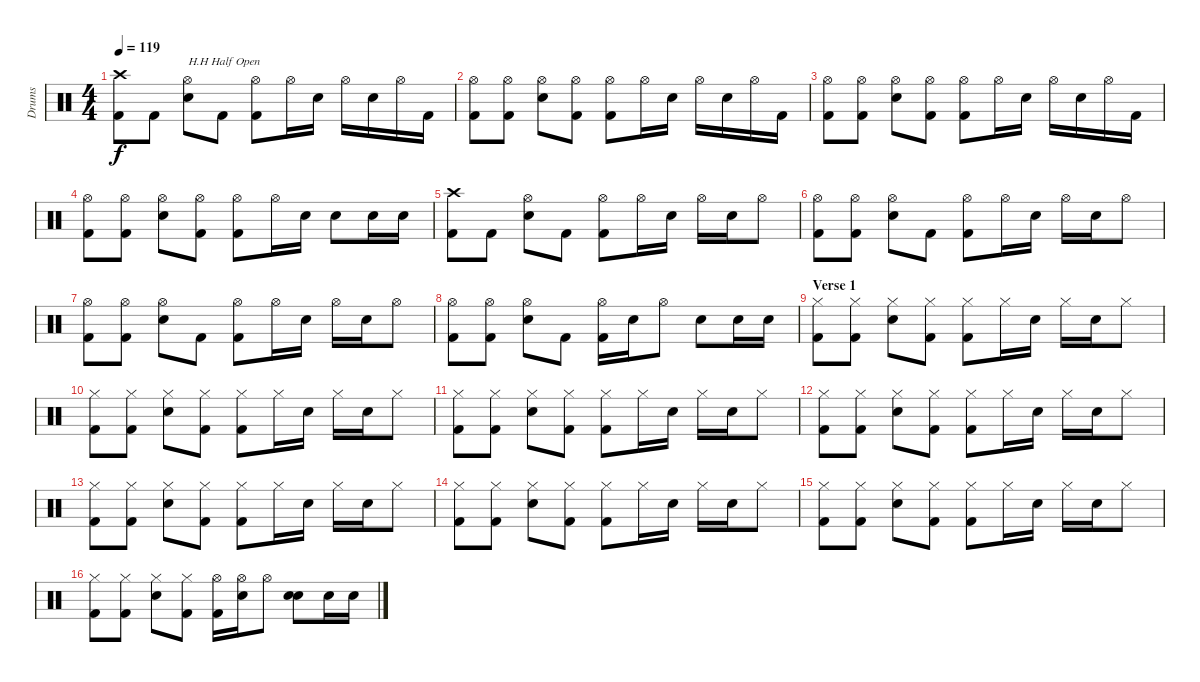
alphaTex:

\track ("Drums" "Drums") {instrument percussion}
\staff {score}
\articulation defaults
\ts (4 4)
\tempo 119
\clef neutral
\ks c
("Crash high (hit)" "Kick (hit) 2").8{dy f} "Kick (hit) 2".8 ("Hi-Hat (open)" "Electric Snare (hit)").8{txt "H.H Half Open"} "Kick (hit) 2".8 ("Hi-Hat (open)" "Kick (hit) 2").8 "Hi-Hat (open)".16 "Electric Snare (hit)".16 "Hi-Hat (open)".16 "Electric Snare (hit)".16 "Hi-Hat (open)".16 "Kick (hit) 2".16 |
("Hi-Hat (open)" "Kick (hit) 2").8 ("Hi-Hat (open)" "Kick (hit) 2").8 ("Hi-Hat (open)" "Electric Snare (hit)").8 ("Hi-Hat (open)" "Kick (hit) 2").8 ("Hi-Hat (open)" "Kick (hit) 2").8 "Hi-Hat (open)".16 "Electric Snare (hit)".16 "Hi-Hat (open)".16 "Electric Snare (hit)".16 "Hi-Hat (open)".16 "Kick (hit) 2".16 |
("Hi-Hat (open)" "Kick (hit) 2").8 ("Hi-Hat (open)" "Kick (hit) 2").8 ("Hi-Hat (open)" "Electric Snare (hit)").8 ("Hi-Hat (open)" "Kick (hit) 2").8 ("Hi-Hat (open)" "Kick (hit) 2").8 "Hi-Hat (open)".16 "Electric Snare (hit)".16 "Hi-Hat (open)".16 "Electric Snare (hit)".16 "Hi-Hat (open)".16 "Kick (hit) 2".16 |
("Hi-Hat (open)" "Kick (hit) 2").8 ("Hi-Hat (open)" "Kick (hit) 2").8 ("Hi-Hat (open)" "Electric Snare (hit)").8 ("Hi-Hat (open)" "Kick (hit) 2").8 ("Hi-Hat (open)" "Kick (hit) 2").8 "Hi-Hat (open)".16 "Electric Snare (hit)".16 "Electric Snare (hit)".8 "Electric Snare (hit)".16 "Electric Snare (hit)".16 |
("Crash high (hit)" "Kick (hit) 2").8 "Kick (hit) 2".8 ("Hi-Hat (open)" "Electric Snare (hit)").8 "Kick (hit) 2".8 ("Hi-Hat (open)" "Kick (hit) 2").8 "Hi-Hat (open)".16 "Electric Snare (hit)".16 "Hi-Hat (open)".16 "Electric Snare (hit)".16 "Hi-Hat (open)".8 |
("Hi-Hat (open)" "Kick (hit) 2").8 ("Hi-Hat (open)" "Kick (hit) 2").8 ("Hi-Hat (open)" "Electric Snare (hit)").8 "Kick (hit) 2".8 ("Hi-Hat (open)" "Kick (hit) 2").8 "Hi-Hat (open)".16 "Electric Snare (hit)".16 "Hi-Hat (open)".16 "Electric Snare (hit)".16 "Hi-Hat (open)".8 |
("Hi-Hat (open)" "Kick (hit) 2").8 ("Hi-Hat (open)" "Kick (hit) 2").8 ("Hi-Hat (open)" "Electric Snare (hit)").8 "Kick (hit) 2".8 ("Hi-Hat (open)" "Kick (hit) 2").8 "Hi-Hat (open)".16 "Electric Snare (hit)".16 "Hi-Hat (open)".16 "Electric Snare (hit)".16 "Hi-Hat (open)".8 |
("Hi-Hat (open)" "Kick (hit) 2").8 ("Hi-Hat (open)" "Kick (hit) 2").8 ("Hi-Hat (open)" "Electric Snare (hit)").8 "Kick (hit) 2".8 ("Hi-Hat (open)" "Kick (hit) 2").16 "Electric Snare (hit)".16 "Hi-Hat (open)".8 "Electric Snare (hit)".8 "Electric Snare (hit)".16 "Electric Snare (hit)".16 |
\section ("" "Verse 1")
("Hi-Hat (closed)" "Kick (hit) 2").8 ("Hi-Hat (closed)" "Kick (hit) 2").8 ("Hi-Hat (closed)" "Electric Snare (hit)").8 ("Hi-Hat (closed)" "Kick (hit) 2").8 ("Hi-Hat (closed)" "Kick (hit) 2").8 "Hi-Hat (closed)".16 "Electric Snare (hit)".16 "Hi-Hat (closed)".16 "Electric Snare (hit)".16 "Hi-Hat (closed)".8 |
("Hi-Hat (closed)" "Kick (hit) 2").8 ("Hi-Hat (closed)" "Kick (hit) 2").8 ("Hi-Hat (closed)" "Electric Snare (hit)").8 ("Hi-Hat (closed)" "Kick (hit) 2").8 ("Hi-Hat (closed)" "Kick (hit) 2").8 "Hi-Hat (closed)".16 "Electric Snare (hit)".16 "Hi-Hat (closed)".16 "Electric Snare (hit)".16 "Hi-Hat (closed)".8 |
("Hi-Hat (closed)" "Kick (hit) 2").8 ("Hi-Hat (closed)" "Kick (hit) 2").8 ("Hi-Hat (closed)" "Electric Snare (hit)").8 ("Hi-Hat (closed)" "Kick (hit) 2").8 ("Hi-Hat (closed)" "Kick (hit) 2").8 "Hi-Hat (closed)".16 "Electric Snare (hit)".16 "Hi-Hat (closed)".16 "Electric Snare (hit)".16 "Hi-Hat (closed)".8 |
("Hi-Hat (closed)" "Kick (hit) 2").8 ("Hi-Hat (closed)" "Kick (hit) 2").8 ("Hi-Hat (closed)" "Electric Snare (hit)").8 ("Hi-Hat (closed)" "Kick (hit) 2").8 ("Hi-Hat (closed)" "Kick (hit) 2").8 "Hi-Hat (closed)".16 "Electric Snare (hit)".16 "Hi-Hat (closed)".16 "Electric Snare (hit)".16 "Hi-Hat (closed)".8 |
("Hi-Hat (closed)" "Kick (hit) 2").8 ("Hi-Hat (closed)" "Kick (hit) 2").8 ("Hi-Hat (closed)" "Electric Snare (hit)").8 ("Hi-Hat (closed)" "Kick (hit) 2").8 ("Hi-Hat (closed)" "Kick (hit) 2").8 "Hi-Hat (closed)".16 "Electric Snare (hit)".16 "Hi-Hat (closed)".16 "Electric Snare (hit)".16 "Hi-Hat (closed)".8 |
("Hi-Hat (closed)" "Kick (hit) 2").8 ("Hi-Hat (closed)" "Kick (hit) 2").8 ("Hi-Hat (closed)" "Electric Snare (hit)").8 ("Hi-Hat (closed)" "Kick (hit) 2").8 ("Hi-Hat (closed)" "Kick (hit) 2").8 "Hi-Hat (closed)".16 "Electric Snare (hit)".16 "Hi-Hat (closed)".16 "Electric Snare (hit)".16 "Hi-Hat (closed)".8 |
("Hi-Hat (closed)" "Kick (hit) 2").8 ("Hi-Hat (closed)" "Kick (hit) 2").8 ("Hi-Hat (closed)" "Electric Snare (hit)").8 ("Hi-Hat (closed)" "Kick (hit) 2").8 ("Hi-Hat (closed)" "Kick (hit) 2").8 "Hi-Hat (closed)".16 "Electric Snare (hit)".16 "Hi-Hat (closed)".16 "Electric Snare (hit)".16 "Hi-Hat (closed)".8 |
("Hi-Hat (closed)" "Kick (hit) 2").8 ("Hi-Hat (closed)" "Kick (hit) 2").8 ("Hi-Hat (closed)" "Electric Snare (hit)").8 ("Hi-Hat (closed)" "Kick (hit) 2").8 ("Hi-Hat (open)" "Kick (hit) 2").16 ("Hi-Hat (open)" "Electric Snare (hit)").16 "Hi-Hat (open)".8 ("Electric Snare (hit)" "Electric Snare (hit)").8 "Electric Snare (hit)".16 "Electric Snare (hit)".16
